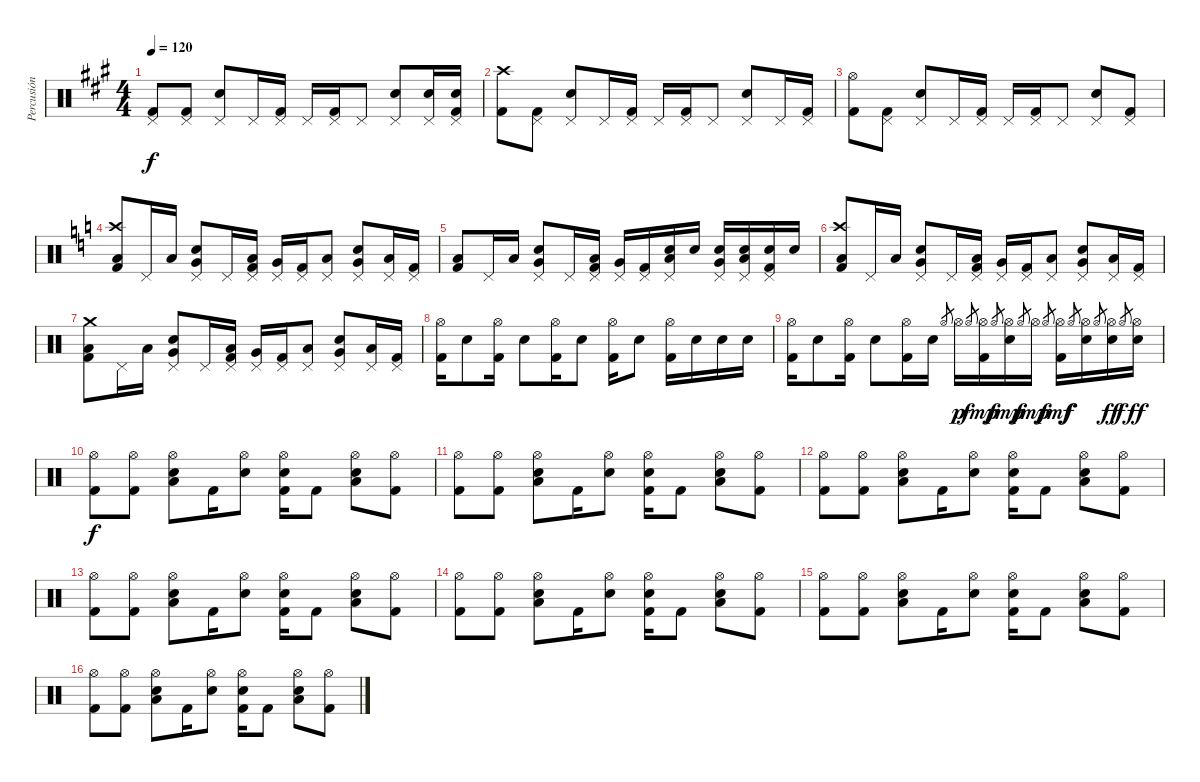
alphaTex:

\track ("Percusión" "Percusión") {instrument percussion}
\staff {score}
\articulation defaults
\ts (4 4)
\tempo 120
\clef neutral
\ks a
("Pedal Hi-Hat (hit)" "Kick (hit) 2").8{dy f} ("Pedal Hi-Hat (hit)" "Kick (hit) 2").8 ("Pedal Hi-Hat (hit)" "Electric Snare (hit)").8 "Pedal Hi-Hat (hit)".16 ("Pedal Hi-Hat (hit)" "Kick (hit) 2").16 "Pedal Hi-Hat (hit)".16 ("Pedal Hi-Hat (hit)" "Kick (hit) 2").16 "Pedal Hi-Hat (hit)".8 ("Pedal Hi-Hat (hit)" "Electric Snare (hit)").8 ("Pedal Hi-Hat (hit)" "Electric Snare (hit)").16 ("Pedal Hi-Hat (hit)" "Electric Snare (hit)" "Kick (hit) 2").16 |
("Crash high (hit)" "Kick (hit) 2").8 ("Pedal Hi-Hat (hit)" "Kick (hit) 2").8 ("Pedal Hi-Hat (hit)" "Electric Snare (hit)").8 "Pedal Hi-Hat (hit)".16 ("Pedal Hi-Hat (hit)" "Kick (hit) 2").16 "Pedal Hi-Hat (hit)".16 ("Pedal Hi-Hat (hit)" "Kick (hit) 2").16 "Pedal Hi-Hat (hit)".8 ("Pedal Hi-Hat (hit)" "Electric Snare (hit)").8 "Pedal Hi-Hat (hit)".16 ("Pedal Hi-Hat (hit)" "Kick (hit) 2").16 |
("Hi-Hat (open)" "Kick (hit) 2").8 ("Pedal Hi-Hat (hit)" "Kick (hit) 2").8 ("Pedal Hi-Hat (hit)" "Electric Snare (hit)").8 "Pedal Hi-Hat (hit)".16 ("Pedal Hi-Hat (hit)" "Kick (hit) 2").16 "Pedal Hi-Hat (hit)".16 ("Pedal Hi-Hat (hit)" "Kick (hit) 2").16 "Pedal Hi-Hat (hit)".8 ("Pedal Hi-Hat (hit)" "Electric Snare (hit)").8 ("Pedal Hi-Hat (hit)" "Kick (hit) 2").8 |
\ks c
("Crash high (hit)" "Low Floor Tom (hit)" "Kick (hit) 2").8 "Pedal Hi-Hat (hit)".16 "Low Floor Tom (hit)".16 ("Pedal Hi-Hat (hit)" "Electric Snare (hit)" "Very Low Tom (hit)").8 "Pedal Hi-Hat (hit)".16 ("Pedal Hi-Hat (hit)" "Low Floor Tom (hit)" "Kick (hit) 2").16 ("Pedal Hi-Hat (hit)" "Very Low Tom (hit)").16 ("Pedal Hi-Hat (hit)" "Kick (hit) 2").16 ("Pedal Hi-Hat (hit)" "Low Floor Tom (hit)").8 ("Pedal Hi-Hat (hit)" "Electric Snare (hit)" "Very Low Tom (hit)").8 ("Pedal Hi-Hat (hit)" "Low Floor Tom (hit)").16 ("Pedal Hi-Hat (hit)" "Kick (hit) 2").16 |
("Low Floor Tom (hit)" "Kick (hit) 2").8 "Pedal Hi-Hat (hit)".16 "Low Floor Tom (hit)".16 ("Pedal Hi-Hat (hit)" "Electric Snare (hit)" "Very Low Tom (hit)").8 "Pedal Hi-Hat (hit)".16 ("Pedal Hi-Hat (hit)" "Low Floor Tom (hit)" "Kick (hit) 2").16 ("Pedal Hi-Hat (hit)" "Very Low Tom (hit)").16 ("Pedal Hi-Hat (hit)" "Kick (hit) 2").16 ("Pedal Hi-Hat (hit)" "Electric Snare (hit)" "Low Floor Tom (hit)").16 "Electric Snare (hit)".16 ("Pedal Hi-Hat (hit)" "Electric Snare (hit)" "Very Low Tom (hit)").16 ("Pedal Hi-Hat (hit)" "Electric Snare (hit)" "Low Floor Tom (hit)").16 ("Pedal Hi-Hat (hit)" "Electric Snare (hit)" "Kick (hit) 2").16 "Electric Snare (hit)".16 |
("Crash high (hit)" "Low Floor Tom (hit)" "Kick (hit) 2").8 "Pedal Hi-Hat (hit)".16 "Low Floor Tom (hit)".16 ("Pedal Hi-Hat (hit)" "Electric Snare (hit)" "Very Low Tom (hit)").8 "Pedal Hi-Hat (hit)".16 ("Pedal Hi-Hat (hit)" "Low Floor Tom (hit)" "Kick (hit) 2").16 ("Pedal Hi-Hat (hit)" "Very Low Tom (hit)").16 ("Pedal Hi-Hat (hit)" "Kick (hit) 2").16 ("Pedal Hi-Hat (hit)" "Low Floor Tom (hit)").8 ("Pedal Hi-Hat (hit)" "Electric Snare (hit)" "Very Low Tom (hit)").8 ("Pedal Hi-Hat (hit)" "Low Floor Tom (hit)").16 ("Pedal Hi-Hat (hit)" "Kick (hit) 2").16 |
("Crash medium (hit)" "Low Floor Tom (hit)" "Kick (hit) 2").8 "Pedal Hi-Hat (hit)".16 "Low Floor Tom (hit)".16 ("Pedal Hi-Hat (hit)" "Electric Snare (hit)" "Very Low Tom (hit)").8 "Pedal Hi-Hat (hit)".16 ("Pedal Hi-Hat (hit)" "Low Floor Tom (hit)" "Kick (hit) 2").16 ("Pedal Hi-Hat (hit)" "Very Low Tom (hit)").16 ("Pedal Hi-Hat (hit)" "Kick (hit) 2").16 ("Pedal Hi-Hat (hit)" "Low Floor Tom (hit)").8 ("Pedal Hi-Hat (hit)" "Electric Snare (hit)" "Very Low Tom (hit)").8 ("Pedal Hi-Hat (hit)" "Low Floor Tom (hit)").16 ("Pedal Hi-Hat (hit)" "Kick (hit) 2").16 |
("Hi-Hat (open)" "Kick (hit) 2").16 "Electric Snare (hit)".8 ("Hi-Hat (open)" "Kick (hit) 2").16 "Electric Snare (hit)".8 ("Hi-Hat (open)" "Kick (hit) 2").16 "Electric Snare (hit)".8 ("Hi-Hat (open)" "Kick (hit) 2").16 "Electric Snare (hit)".8 ("Hi-Hat (open)" "Kick (hit) 2").16 "Electric Snare (hit)".16 "Electric Snare (hit)".16 "Electric Snare (hit)".16 |
("Hi-Hat (open)" "Kick (hit) 2").16 "Electric Snare (hit)".8 ("Hi-Hat (open)" "Kick (hit) 2").16 "Electric Snare (hit)".8 ("Hi-Hat (open)" "Kick (hit) 2").16 "Electric Snare (hit)".16 "Hi-Hat (open)".8{gr} "Hi-Hat (open)".16{dy p} "Hi-Hat (open)".8{gr dy f} ("Hi-Hat (open)" "Kick (hit) 2").16{dy mp} "Hi-Hat (open)".8{gr dy f} ("Hi-Hat (open)" "Electric Snare (hit)").16{dy mp} "Hi-Hat (open)".8{gr dy f} "Hi-Hat (open)".16{dy mp} "Hi-Hat (open)".8{gr dy f} ("Hi-Hat (open)" "Kick (hit) 2").16{dy mf} "Hi-Hat (open)".8{gr dy f} ("Hi-Hat (open)" "Electric Snare (hit)").16 "Hi-Hat (open)".8{gr} ("Hi-Hat (open)" "Electric Snare (hit)").16{dy ff} "Hi-Hat (open)".8{gr dy f} ("Hi-Hat (open)" "Electric Snare (hit)").16{dy ff} |
("Hi-Hat (open)" "Kick (hit) 2").8{dy f} ("Hi-Hat (open)" "Kick (hit) 2").8 ("Hi-Hat (open)" "Electric Snare (hit)" "Low Floor Tom (hit)").8 "Kick (hit) 2".16 ("Hi-Hat (open)" "Electric Snare (hit)").8 ("Hi-Hat (open)" "Electric Snare (hit)" "Kick (hit) 2").16 "Kick (hit) 2".8 ("Hi-Hat (open)" "Electric Snare (hit)" "Low Floor Tom (hit)").8 ("Hi-Hat (open)" "Kick (hit) 2").8 |
("Hi-Hat (open)" "Kick (hit) 2").8 ("Hi-Hat (open)" "Kick (hit) 2").8 ("Hi-Hat (open)" "Electric Snare (hit)" "Low Floor Tom (hit)").8 "Kick (hit) 2".16 ("Hi-Hat (open)" "Electric Snare (hit)").8 ("Hi-Hat (open)" "Electric Snare (hit)" "Kick (hit) 2").16 "Kick (hit) 2".8 ("Hi-Hat (open)" "Electric Snare (hit)" "Low Floor Tom (hit)").8 ("Hi-Hat (open)" "Kick (hit) 2").8 |
("Hi-Hat (open)" "Kick (hit) 2").8 ("Hi-Hat (open)" "Kick (hit) 2").8 ("Hi-Hat (open)" "Electric Snare (hit)" "Low Floor Tom (hit)").8 "Kick (hit) 2".16 ("Hi-Hat (open)" "Electric Snare (hit)").8 ("Hi-Hat (open)" "Electric Snare (hit)" "Kick (hit) 2").16 "Kick (hit) 2".8 ("Hi-Hat (open)" "Electric Snare (hit)" "Low Floor Tom (hit)").8 ("Hi-Hat (open)" "Kick (hit) 2").8 |
("Hi-Hat (open)" "Kick (hit) 2").8 ("Hi-Hat (open)" "Kick (hit) 2").8 ("Hi-Hat (open)" "Electric Snare (hit)" "Low Floor Tom (hit)").8 "Kick (hit) 2".16 ("Hi-Hat (open)" "Electric Snare (hit)").8 ("Hi-Hat (open)" "Electric Snare (hit)" "Kick (hit) 2").16 "Kick (hit) 2".8 ("Hi-Hat (open)" "Electric Snare (hit)" "Low Floor Tom (hit)").8 ("Hi-Hat (open)" "Kick (hit) 2").8 |
("Hi-Hat (open)" "Kick (hit) 2").8 ("Hi-Hat (open)" "Kick (hit) 2").8 ("Hi-Hat (open)" "Electric Snare (hit)" "Low Floor Tom (hit)").8 "Kick (hit) 2".16 ("Hi-Hat (open)" "Electric Snare (hit)").8 ("Hi-Hat (open)" "Electric Snare (hit)" "Kick (hit) 2").16 "Kick (hit) 2".8 ("Hi-Hat (open)" "Electric Snare (hit)" "Low Floor Tom (hit)").8 ("Hi-Hat (open)" "Kick (hit) 2").8 |
("Hi-Hat (open)" "Kick (hit) 2").8 ("Hi-Hat (open)" "Kick (hit) 2").8 ("Hi-Hat (open)" "Electric Snare (hit)" "Low Floor Tom (hit)").8 "Kick (hit) 2".16 ("Hi-Hat (open)" "Electric Snare (hit)").8 ("Hi-Hat (open)" "Electric Snare (hit)" "Kick (hit) 2").16 "Kick (hit) 2".8 ("Hi-Hat (open)" "Electric Snare (hit)" "Low Floor Tom (hit)").8 ("Hi-Hat (open)" "Kick (hit) 2").8 |
("Hi-Hat (open)" "Kick (hit) 2").8 ("Hi-Hat (open)" "Kick (hit) 2").8 ("Hi-Hat (open)" "Electric Snare (hit)" "Low Floor Tom (hit)").8 "Kick (hit) 2".16 ("Hi-Hat (open)" "Electric Snare (hit)").8 ("Hi-Hat (open)" "Electric Snare (hit)" "Kick (hit) 2").16 "Kick (hit) 2".8 ("Hi-Hat (open)" "Electric Snare (hit)" "Low Floor Tom (hit)").8 ("Hi-Hat (open)" "Kick (hit) 2").8
